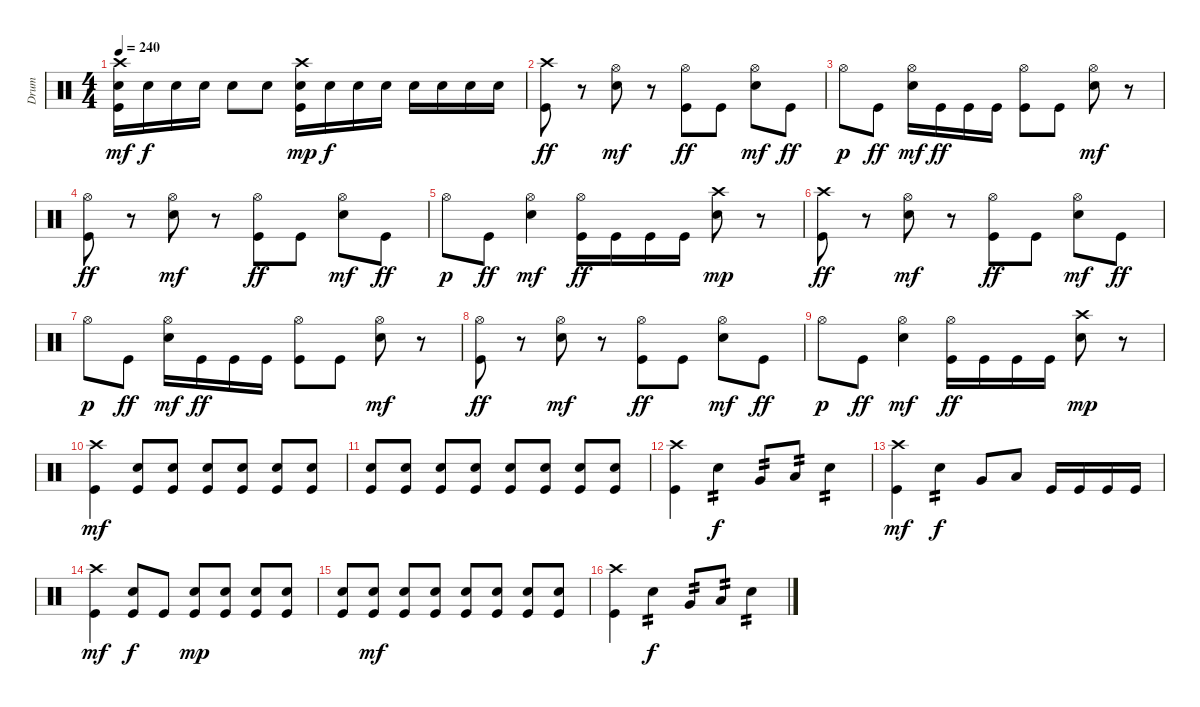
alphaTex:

\track ("Drum" "Drum") {instrument percussion}
\staff {score}
\articulation defaults
\ts (4 4)
\tempo 240
\clef neutral
\ks c
("Crash high (hit)" "Electric Snare (hit)" "Kick (hit)").16{dy mf} "Electric Snare (hit)".16{dy f} "Electric Snare (hit)".16 "Electric Snare (hit)".16 "Electric Snare (hit)".8 "Electric Snare (hit)".8 ("Crash high (hit)" "Electric Snare (hit)" "Kick (hit)").16{dy mp} "Electric Snare (hit)".16{dy f} "Electric Snare (hit)".16 "Electric Snare (hit)".16 "Electric Snare (hit)".16 "Electric Snare (hit)".16 "Electric Snare (hit)".16 "Electric Snare (hit)".16 |
("Crash high (hit)" "Kick (hit)").8{dy ff} r.8 ("Hi-Hat (open)" "Electric Snare (hit)").8{dy mf} r.8 ("Hi-Hat (open)" "Kick (hit)").8{dy ff} "Kick (hit)".8 ("Hi-Hat (open)" "Electric Snare (hit)").8{dy mf} "Kick (hit)".8{dy ff} |
"Hi-Hat (open)".8{dy p} "Kick (hit)".8{dy ff} ("Hi-Hat (open)" "Electric Snare (hit)").16{dy mf} "Kick (hit)".16{dy ff} "Kick (hit)".16 "Kick (hit)".16 ("Hi-Hat (open)" "Kick (hit)").8 "Kick (hit)".8 ("Hi-Hat (open)" "Electric Snare (hit)").8{dy mf} r.8 |
("Hi-Hat (open)" "Kick (hit)").8{dy ff} r.8 ("Hi-Hat (open)" "Electric Snare (hit)").8{dy mf} r.8 ("Hi-Hat (open)" "Kick (hit)").8{dy ff} "Kick (hit)".8 ("Hi-Hat (open)" "Electric Snare (hit)").8{dy mf} "Kick (hit)".8{dy ff} |
"Hi-Hat (open)".8{dy p} "Kick (hit)".8{dy ff} ("Hi-Hat (open)" "Electric Snare (hit)").4{dy mf} ("Hi-Hat (open)" "Kick (hit)").16{dy ff} "Kick (hit)".16 "Kick (hit)".16 "Kick (hit)".16 ("Crash high (hit)" "Electric Snare (hit)").8{dy mp} r.8 |
("Crash high (hit)" "Kick (hit)").8{dy ff} r.8 ("Hi-Hat (open)" "Electric Snare (hit)").8{dy mf} r.8 ("Hi-Hat (open)" "Kick (hit)").8{dy ff} "Kick (hit)".8 ("Hi-Hat (open)" "Electric Snare (hit)").8{dy mf} "Kick (hit)".8{dy ff} |
"Hi-Hat (open)".8{dy p} "Kick (hit)".8{dy ff} ("Hi-Hat (open)" "Electric Snare (hit)").16{dy mf} "Kick (hit)".16{dy ff} "Kick (hit)".16 "Kick (hit)".16 ("Hi-Hat (open)" "Kick (hit)").8 "Kick (hit)".8 ("Hi-Hat (open)" "Electric Snare (hit)").8{dy mf} r.8 |
("Hi-Hat (open)" "Kick (hit)").8{dy ff} r.8 ("Hi-Hat (open)" "Electric Snare (hit)").8{dy mf} r.8 ("Hi-Hat (open)" "Kick (hit)").8{dy ff} "Kick (hit)".8 ("Hi-Hat (open)" "Electric Snare (hit)").8{dy mf} "Kick (hit)".8{dy ff} |
"Hi-Hat (open)".8{dy p} "Kick (hit)".8{dy ff} ("Hi-Hat (open)" "Electric Snare (hit)").4{dy mf} ("Hi-Hat (open)" "Kick (hit)").16{dy ff} "Kick (hit)".16 "Kick (hit)".16 "Kick (hit)".16 ("Crash high (hit)" "Electric Snare (hit)").8{dy mp} r.8 |
("Crash high (hit)" "Kick (hit)").4{dy mf} ("Electric Snare (hit)" "Kick (hit)").8 ("Electric Snare (hit)" "Kick (hit)").8 ("Electric Snare (hit)" "Kick (hit)").8 ("Electric Snare (hit)" "Kick (hit)").8 ("Electric Snare (hit)" "Kick (hit)").8 ("Electric Snare (hit)" "Kick (hit)").8 |
("Electric Snare (hit)" "Kick (hit)").8 ("Electric Snare (hit)" "Kick (hit)").8 ("Electric Snare (hit)" "Kick (hit)").8 ("Electric Snare (hit)" "Kick (hit)").8 ("Electric Snare (hit)" "Kick (hit)").8 ("Electric Snare (hit)" "Kick (hit)").8 ("Electric Snare (hit)" "Kick (hit)").8 ("Electric Snare (hit)" "Kick (hit)").8 |
("Crash high (hit)" "Kick (hit)").4 "Electric Snare (hit)".4{tp 2 dy f} "Very Low Tom (hit)".8{tp 2} "Low Floor Tom (hit)".8{tp 2} "Electric Snare (hit)".4{tp 2} |
("Crash high (hit)" "Kick (hit)").4{dy mf} "Electric Snare (hit)".4{tp 2 dy f} "Very Low Tom (hit)".8 "Low Floor Tom (hit)".8 "Kick (hit)".16 "Kick (hit)".16 "Kick (hit)".16 "Kick (hit)".16 |
("Crash high (hit)" "Kick (hit)").4{dy mf} ("Electric Snare (hit)" "Kick (hit)").8{dy f} "Kick (hit)".8 ("Electric Snare (hit)" "Kick (hit)").8{dy mp} ("Electric Snare (hit)" "Kick (hit)").8 ("Electric Snare (hit)" "Kick (hit)").8 ("Electric Snare (hit)" "Kick (hit)").8 |
("Electric Snare (hit)" "Kick (hit)").8 ("Electric Snare (hit)" "Kick (hit)").8{dy mf} ("Electric Snare (hit)" "Kick (hit)").8 ("Electric Snare (hit)" "Kick (hit)").8 ("Electric Snare (hit)" "Kick (hit)").8 ("Electric Snare (hit)" "Kick (hit)").8 ("Electric Snare (hit)" "Kick (hit)").8 ("Electric Snare (hit)" "Kick (hit)").8 |
("Crash high (hit)" "Kick (hit)").4 "Electric Snare (hit)".4{tp 2 dy f} "Very Low Tom (hit)".8{tp 2} "Low Floor Tom (hit)".8{tp 2} "Electric Snare (hit)".4{tp 2}
